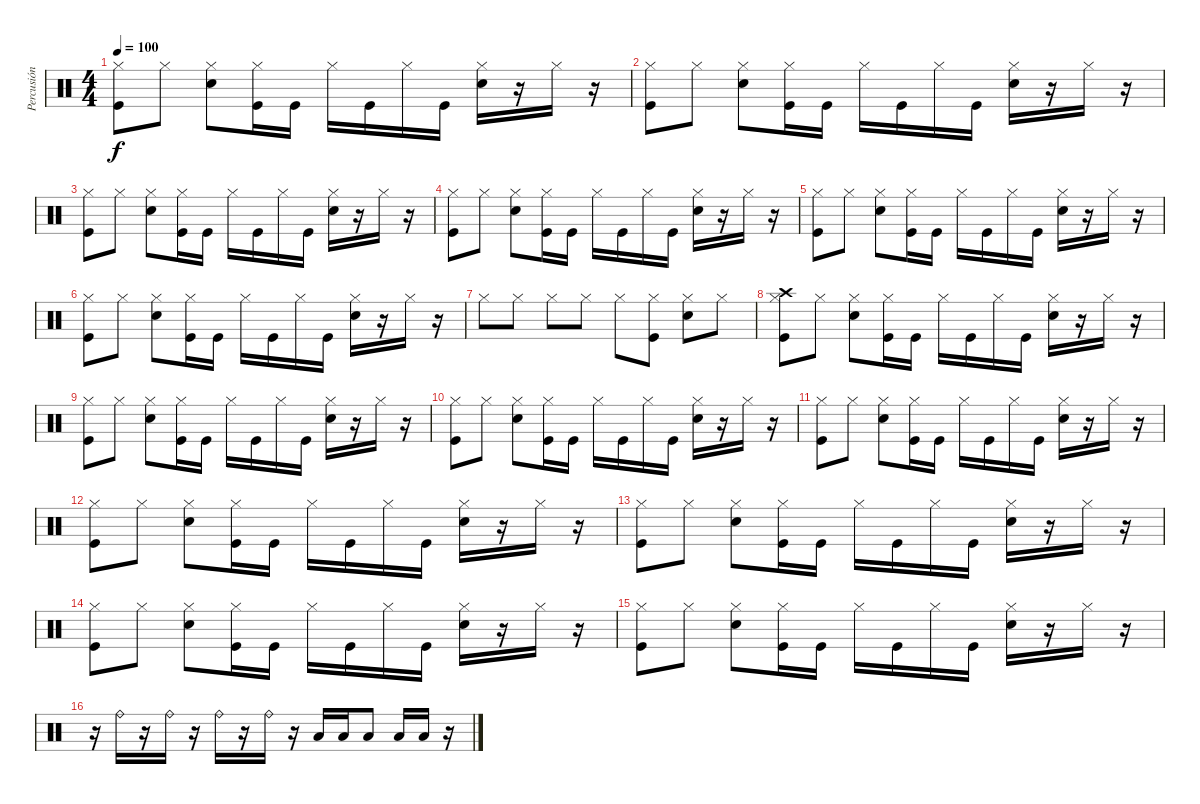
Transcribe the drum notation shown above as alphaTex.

\track ("Percusión" "Percusión") {instrument percussion}
\staff {score}
\articulation defaults
\ts (4 4)
\tempo 100
\clef neutral
\ks c
("Hi-Hat (closed)" "Kick (hit)").8{dy f} "Hi-Hat (closed)".8 ("Hi-Hat (closed)" "Electric Snare (hit)").8 ("Hi-Hat (closed)" "Kick (hit)").16 "Kick (hit)".16 "Hi-Hat (closed)".16 "Kick (hit)".16 "Hi-Hat (closed)".16 "Kick (hit)".16 ("Hi-Hat (closed)" "Electric Snare (hit)").16 r.16 "Hi-Hat (closed)".16 r.16 |
("Hi-Hat (closed)" "Kick (hit)").8 "Hi-Hat (closed)".8 ("Hi-Hat (closed)" "Electric Snare (hit)").8 ("Hi-Hat (closed)" "Kick (hit)").16 "Kick (hit)".16 "Hi-Hat (closed)".16 "Kick (hit)".16 "Hi-Hat (closed)".16 "Kick (hit)".16 ("Hi-Hat (closed)" "Electric Snare (hit)").16 r.16 "Hi-Hat (closed)".16 r.16 |
("Hi-Hat (closed)" "Kick (hit)").8 "Hi-Hat (closed)".8 ("Hi-Hat (closed)" "Electric Snare (hit)").8 ("Hi-Hat (closed)" "Kick (hit)").16 "Kick (hit)".16 "Hi-Hat (closed)".16 "Kick (hit)".16 "Hi-Hat (closed)".16 "Kick (hit)".16 ("Hi-Hat (closed)" "Electric Snare (hit)").16 r.16 "Hi-Hat (closed)".16 r.16 |
("Hi-Hat (closed)" "Kick (hit)").8 "Hi-Hat (closed)".8 ("Hi-Hat (closed)" "Electric Snare (hit)").8 ("Hi-Hat (closed)" "Kick (hit)").16 "Kick (hit)".16 "Hi-Hat (closed)".16 "Kick (hit)".16 "Hi-Hat (closed)".16 "Kick (hit)".16 ("Hi-Hat (closed)" "Electric Snare (hit)").16 r.16 "Hi-Hat (closed)".16 r.16 |
("Hi-Hat (closed)" "Kick (hit)").8 "Hi-Hat (closed)".8 ("Hi-Hat (closed)" "Electric Snare (hit)").8 ("Hi-Hat (closed)" "Kick (hit)").16 "Kick (hit)".16 "Hi-Hat (closed)".16 "Kick (hit)".16 "Hi-Hat (closed)".16 "Kick (hit)".16 ("Hi-Hat (closed)" "Electric Snare (hit)").16 r.16 "Hi-Hat (closed)".16 r.16 |
("Hi-Hat (closed)" "Kick (hit)").8 "Hi-Hat (closed)".8 ("Hi-Hat (closed)" "Electric Snare (hit)").8 ("Hi-Hat (closed)" "Kick (hit)").16 "Kick (hit)".16 "Hi-Hat (closed)".16 "Kick (hit)".16 "Hi-Hat (closed)".16 "Kick (hit)".16 ("Hi-Hat (closed)" "Electric Snare (hit)").16 r.16 "Hi-Hat (closed)".16 r.16 |
"Hi-Hat (closed)".8 "Hi-Hat (closed)".8 "Hi-Hat (closed)".8 "Hi-Hat (closed)".8 "Hi-Hat (closed)".8 ("Hi-Hat (closed)" "Kick (hit)").8 ("Hi-Hat (closed)" "Electric Snare (hit)").8 "Hi-Hat (closed)".8 |
("Hi-Hat (closed)" "Kick (hit)" "Crash high (hit)").8 "Hi-Hat (closed)".8 ("Hi-Hat (closed)" "Electric Snare (hit)").8 ("Hi-Hat (closed)" "Kick (hit)").16 "Kick (hit)".16 "Hi-Hat (closed)".16 "Kick (hit)".16 "Hi-Hat (closed)".16 "Kick (hit)".16 ("Hi-Hat (closed)" "Electric Snare (hit)").16 r.16 "Hi-Hat (closed)".16 r.16 |
("Hi-Hat (closed)" "Kick (hit)").8 "Hi-Hat (closed)".8 ("Hi-Hat (closed)" "Electric Snare (hit)").8 ("Hi-Hat (closed)" "Kick (hit)").16 "Kick (hit)".16 "Hi-Hat (closed)".16 "Kick (hit)".16 "Hi-Hat (closed)".16 "Kick (hit)".16 ("Hi-Hat (closed)" "Electric Snare (hit)").16 r.16 "Hi-Hat (closed)".16 r.16 |
("Hi-Hat (closed)" "Kick (hit)").8 "Hi-Hat (closed)".8 ("Hi-Hat (closed)" "Electric Snare (hit)").8 ("Hi-Hat (closed)" "Kick (hit)").16 "Kick (hit)".16 "Hi-Hat (closed)".16 "Kick (hit)".16 "Hi-Hat (closed)".16 "Kick (hit)".16 ("Hi-Hat (closed)" "Electric Snare (hit)").16 r.16 "Hi-Hat (closed)".16 r.16 |
("Hi-Hat (closed)" "Kick (hit)").8 "Hi-Hat (closed)".8 ("Hi-Hat (closed)" "Electric Snare (hit)").8 ("Hi-Hat (closed)" "Kick (hit)").16 "Kick (hit)".16 "Hi-Hat (closed)".16 "Kick (hit)".16 "Hi-Hat (closed)".16 "Kick (hit)".16 ("Hi-Hat (closed)" "Electric Snare (hit)").16 r.16 "Hi-Hat (closed)".16 r.16 |
("Hi-Hat (closed)" "Kick (hit)").8 "Hi-Hat (closed)".8 ("Hi-Hat (closed)" "Electric Snare (hit)").8 ("Hi-Hat (closed)" "Kick (hit)").16 "Kick (hit)".16 "Hi-Hat (closed)".16 "Kick (hit)".16 "Hi-Hat (closed)".16 "Kick (hit)".16 ("Hi-Hat (closed)" "Electric Snare (hit)").16 r.16 "Hi-Hat (closed)".16 r.16 |
("Hi-Hat (closed)" "Kick (hit)").8 "Hi-Hat (closed)".8 ("Hi-Hat (closed)" "Electric Snare (hit)").8 ("Hi-Hat (closed)" "Kick (hit)").16 "Kick (hit)".16 "Hi-Hat (closed)".16 "Kick (hit)".16 "Hi-Hat (closed)".16 "Kick (hit)".16 ("Hi-Hat (closed)" "Electric Snare (hit)").16 r.16 "Hi-Hat (closed)".16 r.16 |
("Hi-Hat (closed)" "Kick (hit)").8 "Hi-Hat (closed)".8 ("Hi-Hat (closed)" "Electric Snare (hit)").8 ("Hi-Hat (closed)" "Kick (hit)").16 "Kick (hit)".16 "Hi-Hat (closed)".16 "Kick (hit)".16 "Hi-Hat (closed)".16 "Kick (hit)".16 ("Hi-Hat (closed)" "Electric Snare (hit)").16 r.16 "Hi-Hat (closed)".16 r.16 |
("Hi-Hat (closed)" "Kick (hit)").8 "Hi-Hat (closed)".8 ("Hi-Hat (closed)" "Electric Snare (hit)").8 ("Hi-Hat (closed)" "Kick (hit)").16 "Kick (hit)".16 "Hi-Hat (closed)".16 "Kick (hit)".16 "Hi-Hat (closed)".16 "Kick (hit)".16 ("Hi-Hat (closed)" "Electric Snare (hit)").16 r.16 "Hi-Hat (closed)".16 r.16 |
r.16 "Ride (bell)".16 r.16 "Ride (bell)".16 r.16 "Ride (bell)".16 r.16 "Ride (bell)".16 r.16 "Low Floor Tom (hit)".16 "Low Floor Tom (hit)".16 "Low Floor Tom (hit)".8 "Low Floor Tom (hit)".16 "Low Floor Tom (hit)".16 r.16
